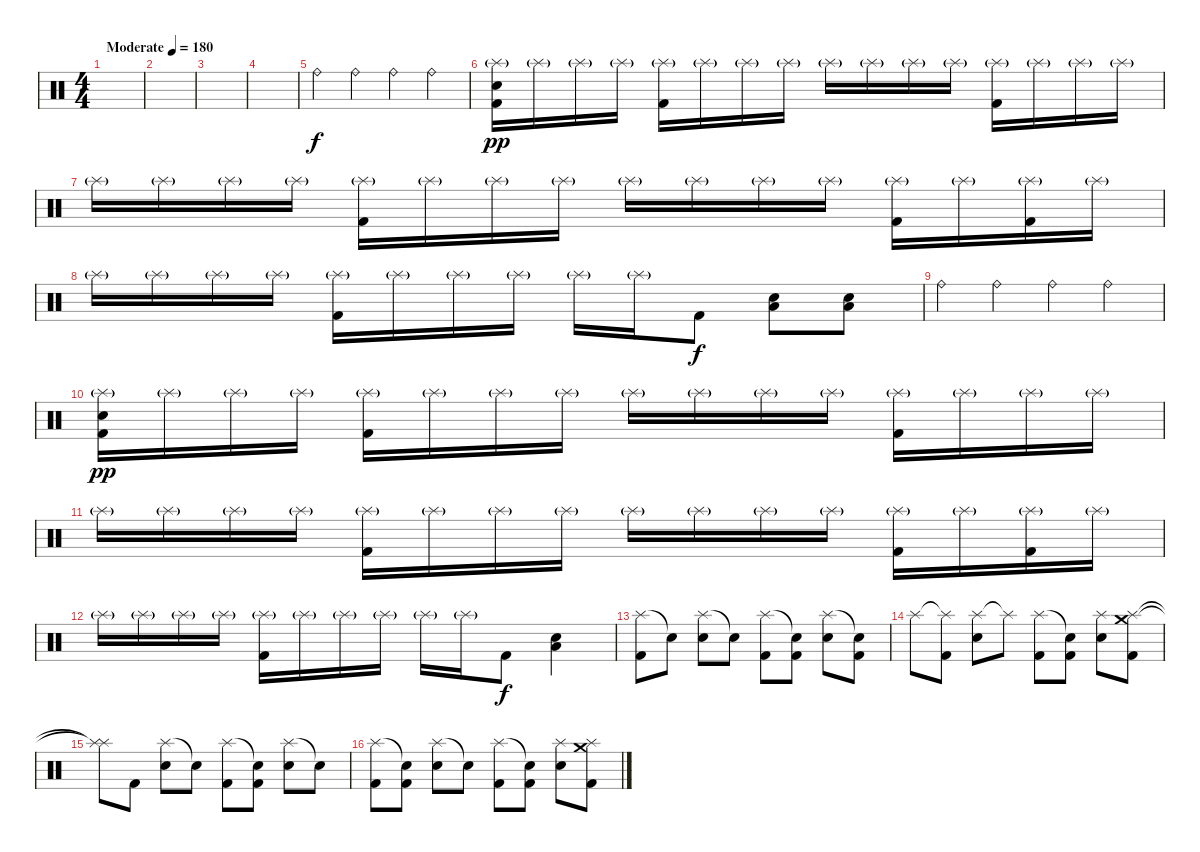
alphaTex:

\track (" " " ") {instrument percussion}
\staff {score}
\articulation defaults
\ts (4 4)
\tempo (180 "Moderate")
\clef neutral
\ks c
|
|
|
|
"Ride (bell)".4 "Ride (bell)".4 "Ride (bell)".4 "Ride (bell)".4 |
("Splash (hit)"{g} "Electric Snare (hit)" "Kick (hit) 2").16{dy pp} "Splash (hit)"{g}.16 "Splash (hit)"{g}.16 "Splash (hit)"{g}.16 ("Splash (hit)"{g} "Kick (hit) 2").16 "Splash (hit)"{g}.16 "Splash (hit)"{g}.16 "Splash (hit)"{g}.16 "Splash (hit)"{g}.16 "Splash (hit)"{g}.16 "Splash (hit)"{g}.16 "Splash (hit)"{g}.16 ("Splash (hit)"{g} "Kick (hit) 2").16 "Splash (hit)"{g}.16 "Splash (hit)"{g}.16 "Splash (hit)"{g}.16 |
"Splash (hit)"{g}.16 "Splash (hit)"{g}.16 "Splash (hit)"{g}.16 "Splash (hit)"{g}.16 ("Splash (hit)"{g} "Kick (hit) 2").16 "Splash (hit)"{g}.16 "Splash (hit)"{g}.16 "Splash (hit)"{g}.16 "Splash (hit)"{g}.16 "Splash (hit)"{g}.16 "Splash (hit)"{g}.16 "Splash (hit)"{g}.16 ("Splash (hit)"{g} "Kick (hit) 2").16 "Splash (hit)"{g}.16 ("Splash (hit)"{g} "Kick (hit) 2").16 "Splash (hit)"{g}.16 |
"Splash (hit)"{g}.16 "Splash (hit)"{g}.16 "Splash (hit)"{g}.16 "Splash (hit)"{g}.16 ("Splash (hit)"{g} "Kick (hit) 2").16 "Splash (hit)"{g}.16 "Splash (hit)"{g}.16 "Splash (hit)"{g}.16 "Splash (hit)"{g}.16 "Splash (hit)"{g}.16 "Kick (hit) 2".8{dy f} ("Electric Snare (hit)" "Low Floor Tom (hit)").8 ("Electric Snare (hit)" "Low Floor Tom (hit)").8 |
"Ride (bell)".4 "Ride (bell)".4 "Ride (bell)".4 "Ride (bell)".4 |
("Splash (hit)"{g} "Electric Snare (hit)" "Kick (hit) 2").16{dy pp} "Splash (hit)"{g}.16 "Splash (hit)"{g}.16 "Splash (hit)"{g}.16 ("Splash (hit)"{g} "Kick (hit) 2").16 "Splash (hit)"{g}.16 "Splash (hit)"{g}.16 "Splash (hit)"{g}.16 "Splash (hit)"{g}.16 "Splash (hit)"{g}.16 "Splash (hit)"{g}.16 "Splash (hit)"{g}.16 ("Splash (hit)"{g} "Kick (hit) 2").16 "Splash (hit)"{g}.16 "Splash (hit)"{g}.16 "Splash (hit)"{g}.16 |
"Splash (hit)"{g}.16 "Splash (hit)"{g}.16 "Splash (hit)"{g}.16 "Splash (hit)"{g}.16 ("Splash (hit)"{g} "Kick (hit) 2").16 "Splash (hit)"{g}.16 "Splash (hit)"{g}.16 "Splash (hit)"{g}.16 "Splash (hit)"{g}.16 "Splash (hit)"{g}.16 "Splash (hit)"{g}.16 "Splash (hit)"{g}.16 ("Splash (hit)"{g} "Kick (hit) 2").16 "Splash (hit)"{g}.16 ("Splash (hit)"{g} "Kick (hit) 2").16 "Splash (hit)"{g}.16 |
"Splash (hit)"{g}.16 "Splash (hit)"{g}.16 "Splash (hit)"{g}.16 "Splash (hit)"{g}.16 ("Splash (hit)"{g} "Kick (hit) 2").16 "Splash (hit)"{g}.16 "Splash (hit)"{g}.16 "Splash (hit)"{g}.16 "Splash (hit)"{g}.16 "Splash (hit)"{g}.16 "Kick (hit) 2".8{dy f} ("Electric Snare (hit)" "Low Floor Tom (hit)").4 |
("Splash (hit)" "Kick (hit) 2").8 "Snare (hit)"{t}.8 ("Splash (hit)" "Electric Snare (hit)").8 "Snare (hit)"{t}.8 ("Splash (hit)" "Kick (hit) 2").8 ("Snare (hit)"{t} "Kick (hit) 2").8 ("Splash (hit)" "Electric Snare (hit)").8 ("Snare (hit)"{t} "Kick (hit) 2").8 |
"Splash (hit)".8 ("Splash (hit)"{t} "Kick (hit) 2").8 ("Splash (hit)" "Electric Snare (hit)").8 "Splash (hit)"{t}.8 ("Splash (hit)" "Kick (hit) 2").8 ("Snare (hit)"{t} "Kick (hit) 2").8 ("Splash (hit)" "Electric Snare (hit)").8 ("Crash medium (hit)" "Splash (hit)" "Kick (hit) 2").8 |
("Splash (hit)"{t} "Splash (hit)"{t}).8 "Kick (hit) 2".8 ("Splash (hit)" "Electric Snare (hit)").8 "Snare (hit)"{t}.8 ("Splash (hit)" "Kick (hit) 2").8 ("Snare (hit)"{t} "Kick (hit) 2").8 ("Splash (hit)" "Electric Snare (hit)").8 "Snare (hit)"{t}.8 |
("Splash (hit)" "Kick (hit) 2").8 ("Snare (hit)"{t} "Kick (hit) 2").8 ("Splash (hit)" "Electric Snare (hit)").8 "Snare (hit)"{t}.8 ("Splash (hit)" "Kick (hit) 2").8 ("Snare (hit)"{t} "Kick (hit) 2").8 ("Splash (hit)" "Electric Snare (hit)").8 ("Crash medium (hit)" "Splash (hit)" "Kick (hit) 2").8
